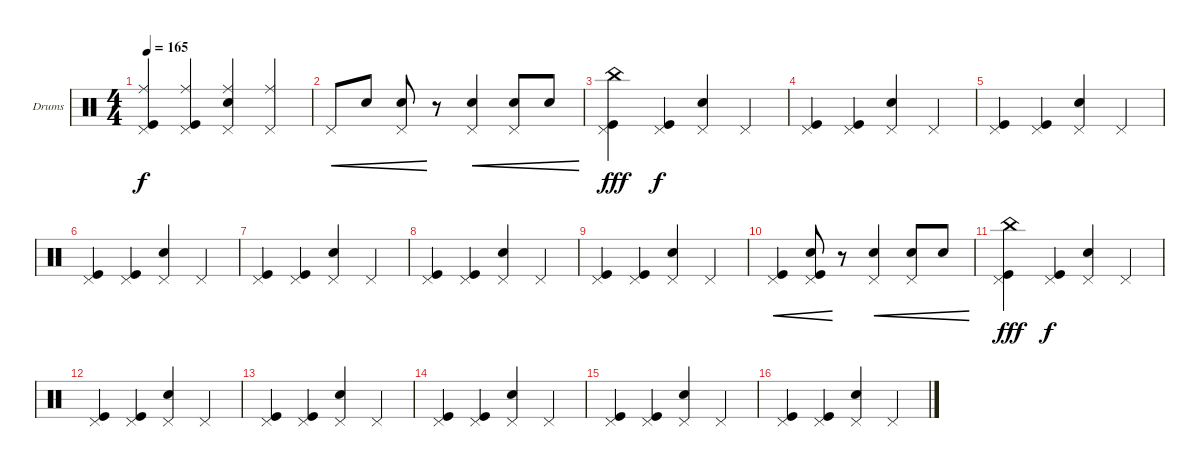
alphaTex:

\bracketExtendMode groupsimilarinstruments
\firstSystemTrackNameOrientation horizontal
\otherSystemsTrackNameOrientation horizontal
\track ("Drumkit" "Drums") {instrument percussion}
\staff {score}
\articulation defaults
\ts (4 4)
\tempo 165
\clef neutral
\ks c
("Pedal Hi-Hat (hit)" "Kick (hit)" "Ride (middle)").4{dy f} ("Pedal Hi-Hat (hit)" "Kick (hit)" "Ride (middle)").4 ("Pedal Hi-Hat (hit)" "Snare (hit) 2" "Ride (middle)").4 ("Pedal Hi-Hat (hit)" "Ride (middle)").4 |
"Pedal Hi-Hat (hit)".8{cre} "Snare (hit) 2".8{cre} ("Pedal Hi-Hat (hit)" "Snare (hit) 2").8{cre} r.8 ("Snare (hit) 2" "Pedal Hi-Hat (hit)").4{cre} ("Snare (hit) 2" "Pedal Hi-Hat (hit)").8{cre} "Snare (hit) 2".8{cre} |
("Kick (hit)" "Pedal Hi-Hat (hit)" "China (hit)").4{dy fff} ("Pedal Hi-Hat (hit)" "Kick (hit)").4{dy f} ("Pedal Hi-Hat (hit)" "Snare (hit) 2").4 "Pedal Hi-Hat (hit)".4 |
("Pedal Hi-Hat (hit)" "Kick (hit)").4 ("Pedal Hi-Hat (hit)" "Kick (hit)").4 ("Pedal Hi-Hat (hit)" "Snare (hit) 2").4 "Pedal Hi-Hat (hit)".4 |
("Pedal Hi-Hat (hit)" "Kick (hit)").4 ("Pedal Hi-Hat (hit)" "Kick (hit)").4 ("Pedal Hi-Hat (hit)" "Snare (hit) 2").4 "Pedal Hi-Hat (hit)".4 |
("Pedal Hi-Hat (hit)" "Kick (hit)").4 ("Pedal Hi-Hat (hit)" "Kick (hit)").4 ("Pedal Hi-Hat (hit)" "Snare (hit) 2").4 "Pedal Hi-Hat (hit)".4 |
("Pedal Hi-Hat (hit)" "Kick (hit)").4 ("Pedal Hi-Hat (hit)" "Kick (hit)").4 ("Pedal Hi-Hat (hit)" "Snare (hit) 2").4 "Pedal Hi-Hat (hit)".4 |
("Pedal Hi-Hat (hit)" "Kick (hit)").4 ("Pedal Hi-Hat (hit)" "Kick (hit)").4 ("Pedal Hi-Hat (hit)" "Snare (hit) 2").4 "Pedal Hi-Hat (hit)".4 |
("Pedal Hi-Hat (hit)" "Kick (hit)").4 ("Pedal Hi-Hat (hit)" "Kick (hit)").4 ("Pedal Hi-Hat (hit)" "Snare (hit) 2").4 "Pedal Hi-Hat (hit)".4 |
("Pedal Hi-Hat (hit)" "Kick (hit)").4{cre} ("Pedal Hi-Hat (hit)" "Snare (hit) 2" "Kick (hit)").8{cre} r.8 ("Snare (hit) 2" "Pedal Hi-Hat (hit)").4{cre} ("Snare (hit) 2" "Pedal Hi-Hat (hit)").8{cre} "Snare (hit) 2".8{cre} |
("Kick (hit)" "Pedal Hi-Hat (hit)" "China (hit)").4{dy fff} ("Pedal Hi-Hat (hit)" "Kick (hit)").4{dy f} ("Pedal Hi-Hat (hit)" "Snare (hit) 2").4 "Pedal Hi-Hat (hit)".4 |
("Pedal Hi-Hat (hit)" "Kick (hit)").4 ("Pedal Hi-Hat (hit)" "Kick (hit)").4 ("Pedal Hi-Hat (hit)" "Snare (hit) 2").4 "Pedal Hi-Hat (hit)".4 |
("Pedal Hi-Hat (hit)" "Kick (hit)").4 ("Pedal Hi-Hat (hit)" "Kick (hit)").4 ("Pedal Hi-Hat (hit)" "Snare (hit) 2").4 "Pedal Hi-Hat (hit)".4 |
("Pedal Hi-Hat (hit)" "Kick (hit)").4 ("Pedal Hi-Hat (hit)" "Kick (hit)").4 ("Pedal Hi-Hat (hit)" "Snare (hit) 2").4 "Pedal Hi-Hat (hit)".4 |
("Pedal Hi-Hat (hit)" "Kick (hit)").4 ("Pedal Hi-Hat (hit)" "Kick (hit)").4 ("Pedal Hi-Hat (hit)" "Snare (hit) 2").4 "Pedal Hi-Hat (hit)".4 |
("Pedal Hi-Hat (hit)" "Kick (hit)").4 ("Pedal Hi-Hat (hit)" "Kick (hit)").4 ("Pedal Hi-Hat (hit)" "Snare (hit) 2").4 "Pedal Hi-Hat (hit)".4
